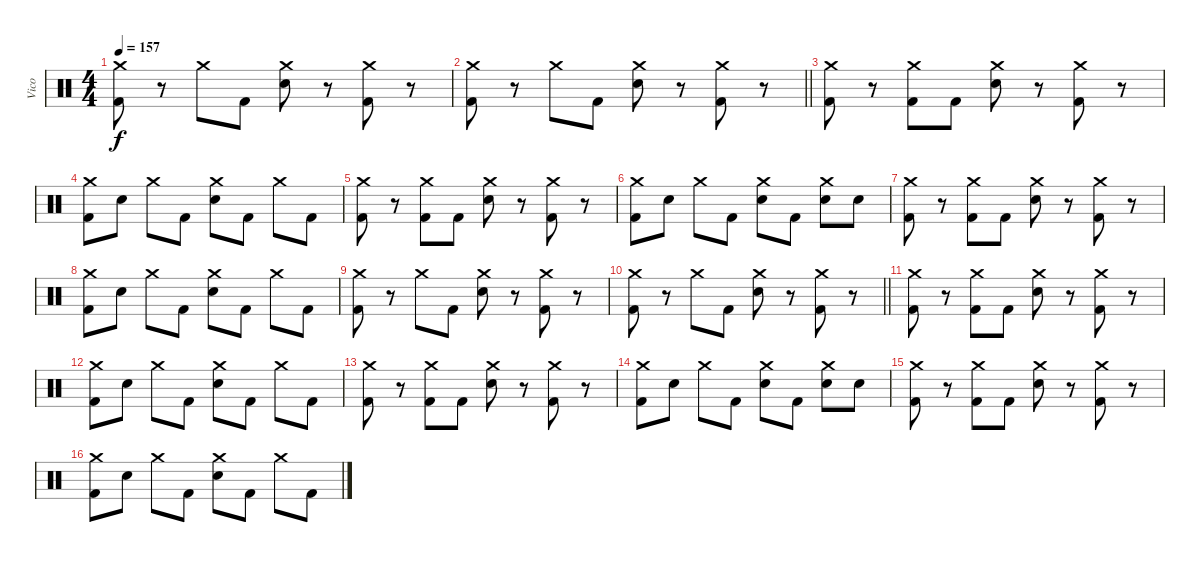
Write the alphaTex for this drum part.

\track ("Vico" "Vico") {instrument percussion}
\staff {score}
\articulation defaults
\ts (4 4)
\tempo 157
\clef neutral
\ks c
("Crash medium (hit)" "Kick (hit) 2").8{dy f} r.8 "Crash medium (hit)".8 "Kick (hit) 2".8 ("Crash medium (hit)" "Electric Snare (hit)").8 r.8 ("Crash medium (hit)" "Kick (hit) 2").8 r.8 |
\barLineRight lightlight
("Crash medium (hit)" "Kick (hit) 2").8 r.8 "Crash medium (hit)".8 "Kick (hit) 2".8 ("Crash medium (hit)" "Electric Snare (hit)").8 r.8 ("Crash medium (hit)" "Kick (hit) 2").8 r.8 |
("Crash medium (hit)" "Kick (hit) 2").8 r.8 ("Crash medium (hit)" "Kick (hit) 2").8 "Kick (hit) 2".8 ("Crash medium (hit)" "Electric Snare (hit)").8 r.8 ("Crash medium (hit)" "Kick (hit) 2").8 r.8 |
("Crash medium (hit)" "Kick (hit) 2").8 "Electric Snare (hit)".8 "Crash medium (hit)".8 "Kick (hit) 2".8 ("Crash medium (hit)" "Electric Snare (hit)").8 "Kick (hit) 2".8 "Crash medium (hit)".8 "Kick (hit) 2".8 |
("Crash medium (hit)" "Kick (hit) 2").8 r.8 ("Crash medium (hit)" "Kick (hit) 2").8 "Kick (hit) 2".8 ("Crash medium (hit)" "Electric Snare (hit)").8 r.8 ("Crash medium (hit)" "Kick (hit) 2").8 r.8 |
("Crash medium (hit)" "Kick (hit) 2").8 "Electric Snare (hit)".8 "Crash medium (hit)".8 "Kick (hit) 2".8 ("Crash medium (hit)" "Electric Snare (hit)").8 "Kick (hit) 2".8 ("Crash medium (hit)" "Electric Snare (hit)").8 "Electric Snare (hit)".8 |
("Crash medium (hit)" "Kick (hit) 2").8 r.8 ("Crash medium (hit)" "Kick (hit) 2").8 "Kick (hit) 2".8 ("Crash medium (hit)" "Electric Snare (hit)").8 r.8 ("Crash medium (hit)" "Kick (hit) 2").8 r.8 |
("Crash medium (hit)" "Kick (hit) 2").8 "Electric Snare (hit)".8 "Crash medium (hit)".8 "Kick (hit) 2".8 ("Crash medium (hit)" "Electric Snare (hit)").8 "Kick (hit) 2".8 "Crash medium (hit)".8 "Kick (hit) 2".8 |
("Crash medium (hit)" "Kick (hit) 2").8 r.8 "Crash medium (hit)".8 "Kick (hit) 2".8 ("Crash medium (hit)" "Electric Snare (hit)").8 r.8 ("Crash medium (hit)" "Kick (hit) 2").8 r.8 |
\barLineRight lightlight
("Crash medium (hit)" "Kick (hit) 2").8 r.8 "Crash medium (hit)".8 "Kick (hit) 2".8 ("Crash medium (hit)" "Electric Snare (hit)").8 r.8 ("Crash medium (hit)" "Kick (hit) 2").8 r.8 |
("Crash medium (hit)" "Kick (hit) 2").8 r.8 ("Crash medium (hit)" "Kick (hit) 2").8 "Kick (hit) 2".8 ("Crash medium (hit)" "Electric Snare (hit)").8 r.8 ("Crash medium (hit)" "Kick (hit) 2").8 r.8 |
("Crash medium (hit)" "Kick (hit) 2").8 "Electric Snare (hit)".8 "Crash medium (hit)".8 "Kick (hit) 2".8 ("Crash medium (hit)" "Electric Snare (hit)").8 "Kick (hit) 2".8 "Crash medium (hit)".8 "Kick (hit) 2".8 |
("Crash medium (hit)" "Kick (hit) 2").8 r.8 ("Crash medium (hit)" "Kick (hit) 2").8 "Kick (hit) 2".8 ("Crash medium (hit)" "Electric Snare (hit)").8 r.8 ("Crash medium (hit)" "Kick (hit) 2").8 r.8 |
("Crash medium (hit)" "Kick (hit) 2").8 "Electric Snare (hit)".8 "Crash medium (hit)".8 "Kick (hit) 2".8 ("Crash medium (hit)" "Electric Snare (hit)").8 "Kick (hit) 2".8 ("Crash medium (hit)" "Electric Snare (hit)").8 "Electric Snare (hit)".8 |
("Crash medium (hit)" "Kick (hit) 2").8 r.8 ("Crash medium (hit)" "Kick (hit) 2").8 "Kick (hit) 2".8 ("Crash medium (hit)" "Electric Snare (hit)").8 r.8 ("Crash medium (hit)" "Kick (hit) 2").8 r.8 |
("Crash medium (hit)" "Kick (hit) 2").8 "Electric Snare (hit)".8 "Crash medium (hit)".8 "Kick (hit) 2".8 ("Crash medium (hit)" "Electric Snare (hit)").8 "Kick (hit) 2".8 "Crash medium (hit)".8 "Kick (hit) 2".8
